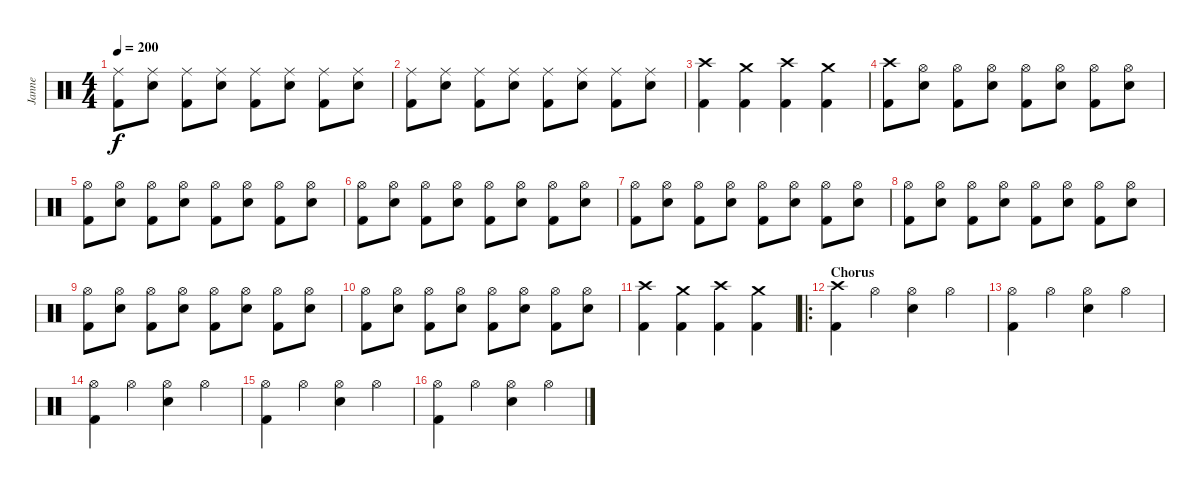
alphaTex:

\track ("Janne" "Janne") {instrument percussion}
\staff {score}
\articulation defaults
\ts (4 4)
\tempo 200
\clef neutral
\ks c
("Ride (middle)" "Kick (hit) 2").8{dy f} ("Ride (middle)" "Electric Snare (hit)").8 ("Ride (middle)" "Kick (hit) 2").8 ("Ride (middle)" "Electric Snare (hit)").8 ("Ride (middle)" "Kick (hit) 2").8 ("Ride (middle)" "Electric Snare (hit)").8 ("Ride (middle)" "Kick (hit) 2").8 ("Ride (middle)" "Electric Snare (hit)").8 |
("Ride (middle)" "Kick (hit) 2").8 ("Ride (middle)" "Electric Snare (hit)").8 ("Ride (middle)" "Kick (hit) 2").8 ("Ride (middle)" "Electric Snare (hit)").8 ("Ride (middle)" "Kick (hit) 2").8 ("Ride (middle)" "Electric Snare (hit)").8 ("Ride (middle)" "Kick (hit) 2").8 ("Ride (middle)" "Electric Snare (hit)").8 |
("Crash high (hit)" "Kick (hit) 2").4 ("Crash medium (hit)" "Kick (hit) 2").4 ("Crash high (hit)" "Kick (hit) 2").4 ("Crash medium (hit)" "Kick (hit) 2").4 |
("Crash high (hit)" "Kick (hit) 2").8 ("Hi-Hat (open)" "Electric Snare (hit)").8 ("Hi-Hat (open)" "Kick (hit) 2").8 ("Hi-Hat (open)" "Electric Snare (hit)").8 ("Hi-Hat (open)" "Kick (hit) 2").8 ("Hi-Hat (open)" "Electric Snare (hit)").8 ("Hi-Hat (open)" "Kick (hit) 2").8 ("Hi-Hat (open)" "Electric Snare (hit)").8 |
("Hi-Hat (open)" "Kick (hit) 2").8 ("Hi-Hat (open)" "Electric Snare (hit)").8 ("Hi-Hat (open)" "Kick (hit) 2").8 ("Hi-Hat (open)" "Electric Snare (hit)").8 ("Hi-Hat (open)" "Kick (hit) 2").8 ("Hi-Hat (open)" "Electric Snare (hit)").8 ("Hi-Hat (open)" "Kick (hit) 2").8 ("Hi-Hat (open)" "Electric Snare (hit)").8 |
("Hi-Hat (open)" "Kick (hit) 2").8 ("Hi-Hat (open)" "Electric Snare (hit)").8 ("Hi-Hat (open)" "Kick (hit) 2").8 ("Hi-Hat (open)" "Electric Snare (hit)").8 ("Hi-Hat (open)" "Kick (hit) 2").8 ("Hi-Hat (open)" "Electric Snare (hit)").8 ("Hi-Hat (open)" "Kick (hit) 2").8 ("Hi-Hat (open)" "Electric Snare (hit)").8 |
("Hi-Hat (open)" "Kick (hit) 2").8 ("Hi-Hat (open)" "Electric Snare (hit)").8 ("Hi-Hat (open)" "Kick (hit) 2").8 ("Hi-Hat (open)" "Electric Snare (hit)").8 ("Hi-Hat (open)" "Kick (hit) 2").8 ("Hi-Hat (open)" "Electric Snare (hit)").8 ("Hi-Hat (open)" "Kick (hit) 2").8 ("Hi-Hat (open)" "Electric Snare (hit)").8 |
("Hi-Hat (open)" "Kick (hit) 2").8 ("Hi-Hat (open)" "Electric Snare (hit)").8 ("Hi-Hat (open)" "Kick (hit) 2").8 ("Hi-Hat (open)" "Electric Snare (hit)").8 ("Hi-Hat (open)" "Kick (hit) 2").8 ("Hi-Hat (open)" "Electric Snare (hit)").8 ("Hi-Hat (open)" "Kick (hit) 2").8 ("Hi-Hat (open)" "Electric Snare (hit)").8 |
("Hi-Hat (open)" "Kick (hit) 2").8 ("Hi-Hat (open)" "Electric Snare (hit)").8 ("Hi-Hat (open)" "Kick (hit) 2").8 ("Hi-Hat (open)" "Electric Snare (hit)").8 ("Hi-Hat (open)" "Kick (hit) 2").8 ("Hi-Hat (open)" "Electric Snare (hit)").8 ("Hi-Hat (open)" "Kick (hit) 2").8 ("Hi-Hat (open)" "Electric Snare (hit)").8 |
("Hi-Hat (open)" "Kick (hit) 2").8 ("Hi-Hat (open)" "Electric Snare (hit)").8 ("Hi-Hat (open)" "Kick (hit) 2").8 ("Hi-Hat (open)" "Electric Snare (hit)").8 ("Hi-Hat (open)" "Kick (hit) 2").8 ("Hi-Hat (open)" "Electric Snare (hit)").8 ("Hi-Hat (open)" "Kick (hit) 2").8 ("Hi-Hat (open)" "Electric Snare (hit)").8 |
("Crash high (hit)" "Kick (hit) 2").4 ("Crash medium (hit)" "Kick (hit) 2").4 ("Crash high (hit)" "Kick (hit) 2").4 ("Crash medium (hit)" "Kick (hit) 2").4 |
\ro
\section ("" "Chorus")
("Crash high (hit)" "Kick (hit) 2").4 "Hi-Hat (open)".4 ("Hi-Hat (open)" "Electric Snare (hit)").4 "Hi-Hat (open)".4 |
("Hi-Hat (open)" "Kick (hit) 2").4 "Hi-Hat (open)".4 ("Hi-Hat (open)" "Electric Snare (hit)").4 "Hi-Hat (open)".4 |
("Hi-Hat (open)" "Kick (hit) 2").4 "Hi-Hat (open)".4 ("Hi-Hat (open)" "Electric Snare (hit)").4 "Hi-Hat (open)".4 |
("Hi-Hat (open)" "Kick (hit) 2").4 "Hi-Hat (open)".4 ("Hi-Hat (open)" "Electric Snare (hit)").4 "Hi-Hat (open)".4 |
("Hi-Hat (open)" "Kick (hit) 2").4 "Hi-Hat (open)".4 ("Hi-Hat (open)" "Electric Snare (hit)").4 "Hi-Hat (open)".4
